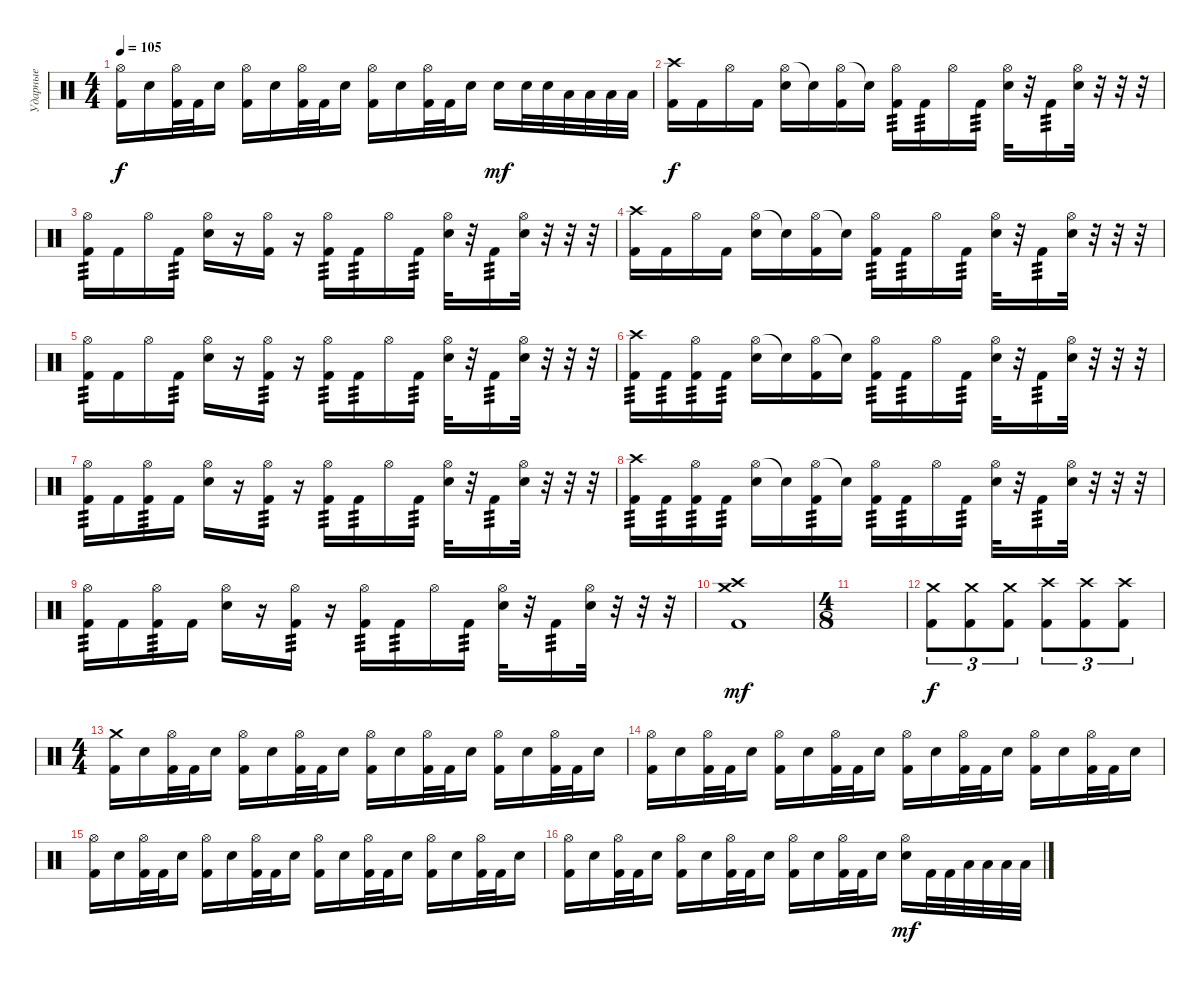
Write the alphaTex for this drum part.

\track ("Ударные" "Ударные") {instrument percussion}
\staff {score}
\articulation defaults
\ts (4 4)
\tempo 105
\clef neutral
\ks c
("Hi-Hat (open)" "Kick (hit) 2").16{dy f} "Snare (hit) 2".16 ("Hi-Hat (open)" "Kick (hit) 2").32 "Kick (hit) 2".32 "Snare (hit) 2".16 ("Hi-Hat (open)" "Kick (hit) 2").16 "Snare (hit) 2".16 ("Hi-Hat (open)" "Kick (hit) 2").32 "Kick (hit) 2".32 "Snare (hit) 2".16 ("Hi-Hat (open)" "Kick (hit) 2").16 "Snare (hit) 2".16 ("Hi-Hat (open)" "Kick (hit) 2").32 "Kick (hit) 2".32 "Snare (hit) 2".16 "Snare (hit) 2".16{dy mf} "Snare (hit) 2".32 "Snare (hit) 2".32 "Low Tom (hit)".32 "Low Tom (hit)".32 "Low Floor Tom (hit)".32 "Low Floor Tom (hit)".32 |
("Crash high (hit)" "Kick (hit) 2").16{dy f} "Kick (hit) 2".16 "Hi-Hat (open)".16 "Kick (hit) 2".16 ("Hi-Hat (open)" "Snare (hit) 2").16 "Snare (hit)"{t}.16 ("Hi-Hat (open)" "Kick (hit) 2").16 "Snare (hit)"{t}.16 ("Hi-Hat (open)" "Kick (hit) 2").16{tp 3} "Kick (hit) 2".16{tp 3} "Hi-Hat (open)".16 "Kick (hit) 2".16{tp 3} ("Hi-Hat (open)" "Snare (hit) 2").32 r.32 "Kick (hit) 2".16{tp 3} ("Hi-Hat (open)" "Snare (hit) 2").32 r.32 r.32 r.32 |
("Hi-Hat (open)" "Kick (hit) 2").16{tp 3} "Kick (hit) 2".16 "Hi-Hat (open)".16 "Kick (hit) 2".16{tp 3} ("Hi-Hat (open)" "Snare (hit) 2").16 r.16 ("Hi-Hat (open)" "Kick (hit) 2").16 r.16 ("Hi-Hat (open)" "Kick (hit) 2").16{tp 3} "Kick (hit) 2".16{tp 3} "Hi-Hat (open)".16 "Kick (hit) 2".16{tp 3} ("Hi-Hat (open)" "Snare (hit) 2").32 r.32 "Kick (hit) 2".16{tp 3} ("Hi-Hat (open)" "Snare (hit) 2").32 r.32 r.32 r.32 |
("Crash high (hit)" "Kick (hit) 2").16 "Kick (hit) 2".16 "Hi-Hat (open)".16 "Kick (hit) 2".16 ("Hi-Hat (open)" "Snare (hit) 2").16 "Snare (hit)"{t}.16 ("Hi-Hat (open)" "Kick (hit) 2").16 "Snare (hit)"{t}.16 ("Hi-Hat (open)" "Kick (hit) 2").16{tp 3} "Kick (hit) 2".16{tp 3} "Hi-Hat (open)".16 "Kick (hit) 2".16{tp 3} ("Hi-Hat (open)" "Snare (hit) 2").32 r.32 "Kick (hit) 2".16{tp 3} ("Hi-Hat (open)" "Snare (hit) 2").32 r.32 r.32 r.32 |
("Hi-Hat (open)" "Kick (hit) 2").16{tp 3} "Kick (hit) 2".16 "Hi-Hat (open)".16 "Kick (hit) 2".16{tp 3} ("Hi-Hat (open)" "Snare (hit) 2").16 r.16 ("Hi-Hat (open)" "Kick (hit) 2").16{tp 3} r.16 ("Hi-Hat (open)" "Kick (hit) 2").16{tp 3} "Kick (hit) 2".16{tp 3} "Hi-Hat (open)".16 "Kick (hit) 2".16{tp 3} ("Hi-Hat (open)" "Snare (hit) 2").32 r.32 "Kick (hit) 2".16{tp 3} ("Hi-Hat (open)" "Snare (hit) 2").32 r.32 r.32 r.32 |
("Crash high (hit)" "Kick (hit) 2").16{tp 3} "Kick (hit) 2".16{tp 3} ("Hi-Hat (open)" "Kick (hit) 2").16{tp 3} "Kick (hit) 2".16{tp 3} ("Hi-Hat (open)" "Snare (hit) 2").16 "Snare (hit)"{t}.16 ("Hi-Hat (open)" "Kick (hit) 2").16 "Snare (hit)"{t}.16 ("Hi-Hat (open)" "Kick (hit) 2").16{tp 3} "Kick (hit) 2".16{tp 3} "Hi-Hat (open)".16 "Kick (hit) 2".16{tp 3} ("Hi-Hat (open)" "Snare (hit) 2").32 r.32 "Kick (hit) 2".16{tp 3} ("Hi-Hat (open)" "Snare (hit) 2").32 r.32 r.32 r.32 |
("Hi-Hat (open)" "Kick (hit) 2").16{tp 3} "Kick (hit) 2".16 ("Hi-Hat (open)" "Kick (hit) 2").16{tp 3} "Kick (hit) 2".16 ("Hi-Hat (open)" "Snare (hit) 2").16 r.16 ("Hi-Hat (open)" "Kick (hit) 2").16{tp 3} r.16 ("Hi-Hat (open)" "Kick (hit) 2").16{tp 3} "Kick (hit) 2".16{tp 3} "Hi-Hat (open)".16 "Kick (hit) 2".16{tp 3} ("Hi-Hat (open)" "Snare (hit) 2").32 r.32 "Kick (hit) 2".16{tp 3} ("Hi-Hat (open)" "Snare (hit) 2").32 r.32 r.32 r.32 |
("Crash high (hit)" "Kick (hit) 2").16{tp 3} "Kick (hit) 2".16{tp 3} ("Hi-Hat (open)" "Kick (hit) 2").16{tp 3} "Kick (hit) 2".16{tp 3} ("Hi-Hat (open)" "Snare (hit) 2").16 "Snare (hit)"{t}.16 ("Hi-Hat (open)" "Kick (hit) 2").16{tp 3} "Snare (hit)"{t}.16 ("Hi-Hat (open)" "Kick (hit) 2").16{tp 3} "Kick (hit) 2".16{tp 3} "Hi-Hat (open)".16 "Kick (hit) 2".16{tp 3} ("Hi-Hat (open)" "Snare (hit) 2").32 r.32 "Kick (hit) 2".16{tp 3} ("Hi-Hat (open)" "Snare (hit) 2").32 r.32 r.32 r.32 |
("Hi-Hat (open)" "Kick (hit) 2").16{tp 3} "Kick (hit) 2".16 ("Hi-Hat (open)" "Kick (hit) 2").16{tp 3} "Kick (hit) 2".16 ("Hi-Hat (open)" "Snare (hit) 2").16 r.16 ("Hi-Hat (open)" "Kick (hit) 2").16{tp 3} r.16 ("Hi-Hat (open)" "Kick (hit) 2").16{tp 3} "Kick (hit) 2".16{tp 3} "Hi-Hat (open)".16 "Kick (hit) 2".16{tp 3} ("Hi-Hat (open)" "Snare (hit) 2").32 r.32 "Kick (hit) 2".16{tp 3} ("Hi-Hat (open)" "Snare (hit) 2").32 r.32 r.32 r.32 |
("Crash medium (hit)" "Crash high (hit)" "Kick (hit) 2").1{dy mf} |
\ts (4 8)
|
("Crash medium (hit)" "Kick (hit) 2").8{tu (3 2) dy f} ("Crash medium (hit)" "Kick (hit) 2").8{tu (3 2)} ("Crash medium (hit)" "Kick (hit) 2").8{tu (3 2)} ("Crash high (hit)" "Kick (hit) 2").8{tu (3 2)} ("Crash high (hit)" "Kick (hit) 2").8{tu (3 2)} ("Crash high (hit)" "Kick (hit) 2").8{tu (3 2)} |
\ts (4 4)
("Crash medium (hit)" "Kick (hit) 2").16 "Snare (hit) 2".16 ("Hi-Hat (open)" "Kick (hit) 2").32 "Kick (hit) 2".32 "Snare (hit) 2".16 ("Hi-Hat (open)" "Kick (hit) 2").16 "Snare (hit) 2".16 ("Hi-Hat (open)" "Kick (hit) 2").32 "Kick (hit) 2".32 "Snare (hit) 2".16 ("Hi-Hat (open)" "Kick (hit) 2").16 "Snare (hit) 2".16 ("Hi-Hat (open)" "Kick (hit) 2").32 "Kick (hit) 2".32 "Snare (hit) 2".16 ("Hi-Hat (open)" "Kick (hit) 2").16 "Snare (hit) 2".16 ("Hi-Hat (open)" "Kick (hit) 2").32 "Kick (hit) 2".32 "Snare (hit) 2".16 |
("Hi-Hat (open)" "Kick (hit) 2").16 "Snare (hit) 2".16 ("Hi-Hat (open)" "Kick (hit) 2").32 "Kick (hit) 2".32 "Snare (hit) 2".16 ("Hi-Hat (open)" "Kick (hit) 2").16 "Snare (hit) 2".16 ("Hi-Hat (open)" "Kick (hit) 2").32 "Kick (hit) 2".32 "Snare (hit) 2".16 ("Hi-Hat (open)" "Kick (hit) 2").16 "Snare (hit) 2".16 ("Hi-Hat (open)" "Kick (hit) 2").32 "Kick (hit) 2".32 "Snare (hit) 2".16 ("Hi-Hat (open)" "Kick (hit) 2").16 "Snare (hit) 2".16 ("Hi-Hat (open)" "Kick (hit) 2").32 "Kick (hit) 2".32 "Snare (hit) 2".16 |
("Hi-Hat (open)" "Kick (hit) 2").16 "Snare (hit) 2".16 ("Hi-Hat (open)" "Kick (hit) 2").32 "Kick (hit) 2".32 "Snare (hit) 2".16 ("Hi-Hat (open)" "Kick (hit) 2").16 "Snare (hit) 2".16 ("Hi-Hat (open)" "Kick (hit) 2").32 "Kick (hit) 2".32 "Snare (hit) 2".16 ("Hi-Hat (open)" "Kick (hit) 2").16 "Snare (hit) 2".16 ("Hi-Hat (open)" "Kick (hit) 2").32 "Kick (hit) 2".32 "Snare (hit) 2".16 ("Hi-Hat (open)" "Kick (hit) 2").16 "Snare (hit) 2".16 ("Hi-Hat (open)" "Kick (hit) 2").32 "Kick (hit) 2".32 "Snare (hit) 2".16 |
("Hi-Hat (open)" "Kick (hit) 2").16 "Snare (hit) 2".16 ("Hi-Hat (open)" "Kick (hit) 2").32 "Kick (hit) 2".32 "Snare (hit) 2".16 ("Hi-Hat (open)" "Kick (hit) 2").16 "Snare (hit) 2".16 ("Hi-Hat (open)" "Kick (hit) 2").32 "Kick (hit) 2".32 "Snare (hit) 2".16 ("Hi-Hat (open)" "Kick (hit) 2").16 "Snare (hit) 2".16 ("Hi-Hat (open)" "Kick (hit) 2").32 "Kick (hit) 2".32 "Snare (hit) 2".16 ("Hi-Hat (open)" "Snare (hit) 2").16{dy mf} "Kick (hit) 2".32 "Kick (hit) 2".32 "Low Tom (hit)".32 "Low Tom (hit)".32 "Low Floor Tom (hit)".32 "Low Floor Tom (hit)".32
